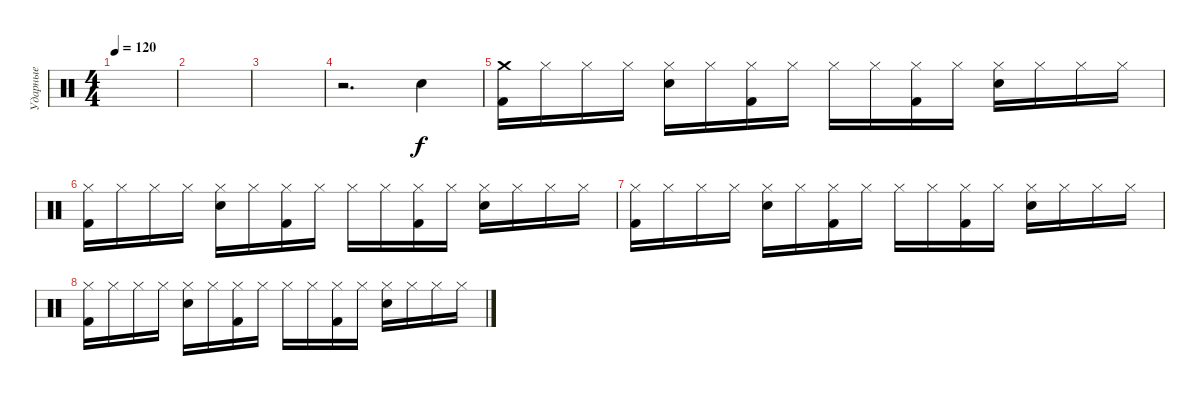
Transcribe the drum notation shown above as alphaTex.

\track ("Ударные" "Ударные") {instrument percussion}
\staff {score}
\articulation defaults
\ts (4 4)
\tempo 120
\clef neutral
\ks c
|
|
|
r.2{d} "Snare (hit) 2".4 |
("Crash medium (hit)" "Kick (hit) 2").16 "Hi-Hat (closed)".16 "Hi-Hat (closed)".16 "Hi-Hat (closed)".16 ("Hi-Hat (closed)" "Snare (hit) 2").16 "Hi-Hat (closed)".16 ("Hi-Hat (closed)" "Kick (hit) 2").16 "Hi-Hat (closed)".16 "Hi-Hat (closed)".16 "Hi-Hat (closed)".16 ("Hi-Hat (closed)" "Kick (hit) 2").16 "Hi-Hat (closed)".16 ("Hi-Hat (closed)" "Snare (hit) 2").16 "Hi-Hat (closed)".16 "Hi-Hat (closed)".16 "Hi-Hat (closed)".16 |
("Hi-Hat (closed)" "Kick (hit) 2").16 "Hi-Hat (closed)".16 "Hi-Hat (closed)".16 "Hi-Hat (closed)".16 ("Hi-Hat (closed)" "Snare (hit) 2").16 "Hi-Hat (closed)".16 ("Hi-Hat (closed)" "Kick (hit) 2").16 "Hi-Hat (closed)".16 "Hi-Hat (closed)".16 "Hi-Hat (closed)".16 ("Hi-Hat (closed)" "Kick (hit) 2").16 "Hi-Hat (closed)".16 ("Hi-Hat (closed)" "Snare (hit) 2").16 "Hi-Hat (closed)".16 "Hi-Hat (closed)".16 "Hi-Hat (closed)".16 |
("Hi-Hat (closed)" "Kick (hit) 2").16 "Hi-Hat (closed)".16 "Hi-Hat (closed)".16 "Hi-Hat (closed)".16 ("Hi-Hat (closed)" "Snare (hit) 2").16 "Hi-Hat (closed)".16 ("Hi-Hat (closed)" "Kick (hit) 2").16 "Hi-Hat (closed)".16 "Hi-Hat (closed)".16 "Hi-Hat (closed)".16 ("Hi-Hat (closed)" "Kick (hit) 2").16 "Hi-Hat (closed)".16 ("Hi-Hat (closed)" "Snare (hit) 2").16 "Hi-Hat (closed)".16 "Hi-Hat (closed)".16 "Hi-Hat (closed)".16 |
("Hi-Hat (closed)" "Kick (hit) 2").16 "Hi-Hat (closed)".16 "Hi-Hat (closed)".16 "Hi-Hat (closed)".16 ("Hi-Hat (closed)" "Snare (hit) 2").16 "Hi-Hat (closed)".16 ("Hi-Hat (closed)" "Kick (hit) 2").16 "Hi-Hat (closed)".16 "Hi-Hat (closed)".16 "Hi-Hat (closed)".16 ("Hi-Hat (closed)" "Kick (hit) 2").16 "Hi-Hat (closed)".16 ("Hi-Hat (closed)" "Snare (hit) 2").16 "Hi-Hat (closed)".16 "Hi-Hat (closed)".16 "Hi-Hat (closed)".16
